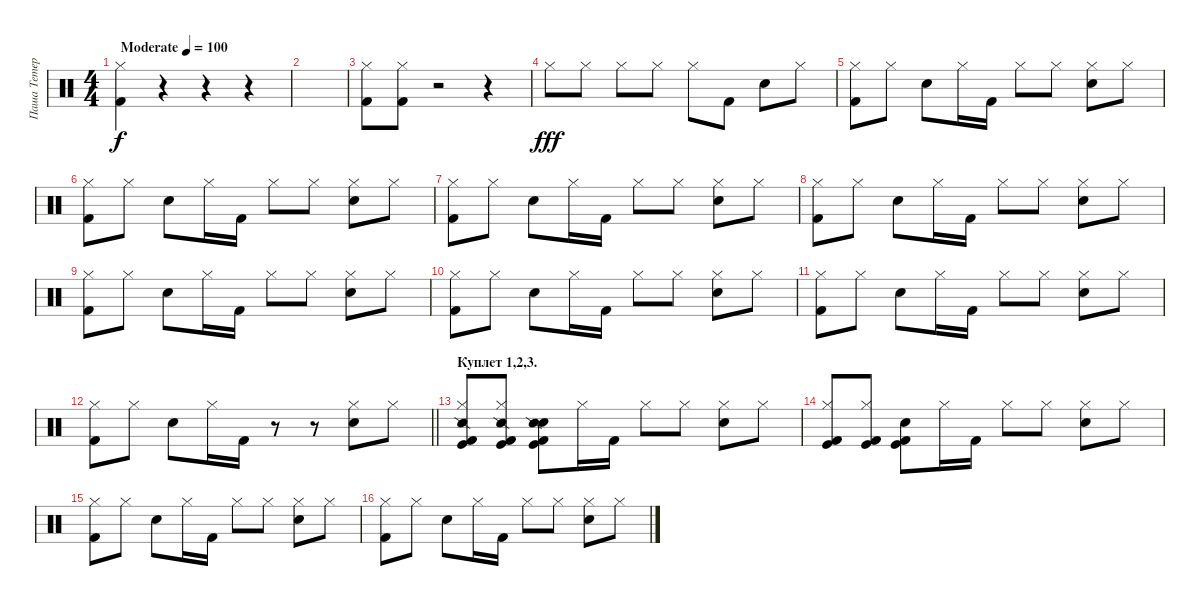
\track ("Паша Тетерин" "Паша Тетер") {instrument percussion}
\staff {score}
\articulation defaults
\ts (4 4)
\tempo (100 "Moderate")
\clef neutral
\ks c
("Kick (hit) 2" "Hi-Hat (closed)").4{dy f} r.4 r.4 r.4 |
|
("Kick (hit) 2" "Hi-Hat (closed)").8 ("Kick (hit) 2" "Hi-Hat (closed)").8 r.2 r.4 |
"Hi-Hat (closed)".8{dy fff} "Hi-Hat (closed)".8 "Hi-Hat (closed)".8 "Hi-Hat (closed)".8 "Hi-Hat (closed)".8 "Kick (hit) 2".8 "Electric Snare (hit)".8 "Hi-Hat (closed)".8 |
("Hi-Hat (closed)" "Kick (hit) 2").8 "Hi-Hat (closed)".8 "Snare (hit) 2".8 "Hi-Hat (closed)".16 "Kick (hit) 2".16 "Hi-Hat (closed)".8 "Hi-Hat (closed)".8 ("Hi-Hat (closed)" "Snare (hit) 2").8 "Hi-Hat (closed)".8 |
("Hi-Hat (closed)" "Kick (hit) 2").8 "Hi-Hat (closed)".8 "Snare (hit) 2".8 "Hi-Hat (closed)".16 "Kick (hit) 2".16 "Hi-Hat (closed)".8 "Hi-Hat (closed)".8 ("Hi-Hat (closed)" "Snare (hit) 2").8 "Hi-Hat (closed)".8 |
("Hi-Hat (closed)" "Kick (hit) 2").8 "Hi-Hat (closed)".8 "Snare (hit) 2".8 "Hi-Hat (closed)".16 "Kick (hit) 2".16 "Hi-Hat (closed)".8 "Hi-Hat (closed)".8 ("Hi-Hat (closed)" "Snare (hit) 2").8 "Hi-Hat (closed)".8 |
("Hi-Hat (closed)" "Kick (hit) 2").8 "Hi-Hat (closed)".8 "Snare (hit) 2".8 "Hi-Hat (closed)".16 "Kick (hit) 2".16 "Hi-Hat (closed)".8 "Hi-Hat (closed)".8 ("Hi-Hat (closed)" "Snare (hit) 2").8 "Hi-Hat (closed)".8 |
("Hi-Hat (closed)" "Kick (hit) 2").8 "Hi-Hat (closed)".8 "Snare (hit) 2".8 "Hi-Hat (closed)".16 "Kick (hit) 2".16 "Hi-Hat (closed)".8 "Hi-Hat (closed)".8 ("Hi-Hat (closed)" "Snare (hit) 2").8 "Hi-Hat (closed)".8 |
("Hi-Hat (closed)" "Kick (hit) 2").8 "Hi-Hat (closed)".8 "Snare (hit) 2".8 "Hi-Hat (closed)".16 "Kick (hit) 2".16 "Hi-Hat (closed)".8 "Hi-Hat (closed)".8 ("Hi-Hat (closed)" "Snare (hit) 2").8 "Hi-Hat (closed)".8 |
("Hi-Hat (closed)" "Kick (hit) 2").8 "Hi-Hat (closed)".8 "Snare (hit) 2".8 "Hi-Hat (closed)".16 "Kick (hit) 2".16 "Hi-Hat (closed)".8 "Hi-Hat (closed)".8 ("Hi-Hat (closed)" "Snare (hit) 2").8 "Hi-Hat (closed)".8 |
\barLineRight lightlight
("Hi-Hat (closed)" "Kick (hit) 2").8 "Hi-Hat (closed)".8 "Snare (hit) 2".8 "Hi-Hat (closed)".16 "Kick (hit) 2".16 r.8 r.8 ("Hi-Hat (closed)" "Snare (hit) 2").8 "Hi-Hat (closed)".8 |
\section ("" "Куплет 1,2,3.")
("Kick (hit) 2" "Hi-Hat (closed)" "Kick (hit)" "Snare (side stick) 2").8 ("Kick (hit) 2" "Hi-Hat (closed)" "Kick (hit)" "Snare (side stick) 2").8 ("Kick (hit) 2" "Snare (hit) 2" "Kick (hit)" "Snare (side stick) 2").8 "Hi-Hat (closed)".16 "Kick (hit) 2".16 "Hi-Hat (closed)".8 "Hi-Hat (closed)".8 ("Hi-Hat (closed)" "Snare (hit) 2").8 "Hi-Hat (closed)".8 |
("Kick (hit) 2" "Hi-Hat (closed)" "Kick (hit)").8 ("Kick (hit) 2" "Hi-Hat (closed)" "Kick (hit)").8 ("Kick (hit) 2" "Snare (hit) 2" "Kick (hit)").8 "Hi-Hat (closed)".16 "Kick (hit) 2".16 "Hi-Hat (closed)".8 "Hi-Hat (closed)".8 ("Hi-Hat (closed)" "Snare (hit) 2").8 "Hi-Hat (closed)".8 |
("Hi-Hat (closed)" "Kick (hit) 2").8 "Hi-Hat (closed)".8 "Snare (hit) 2".8 "Hi-Hat (closed)".16 "Kick (hit) 2".16 "Hi-Hat (closed)".8 "Hi-Hat (closed)".8 ("Hi-Hat (closed)" "Snare (hit) 2").8 "Hi-Hat (closed)".8 |
("Hi-Hat (closed)" "Kick (hit) 2").8 "Hi-Hat (closed)".8 "Snare (hit) 2".8 "Hi-Hat (closed)".16 "Kick (hit) 2".16 "Hi-Hat (closed)".8 "Hi-Hat (closed)".8 ("Hi-Hat (closed)" "Snare (hit) 2").8 "Hi-Hat (closed)".8
